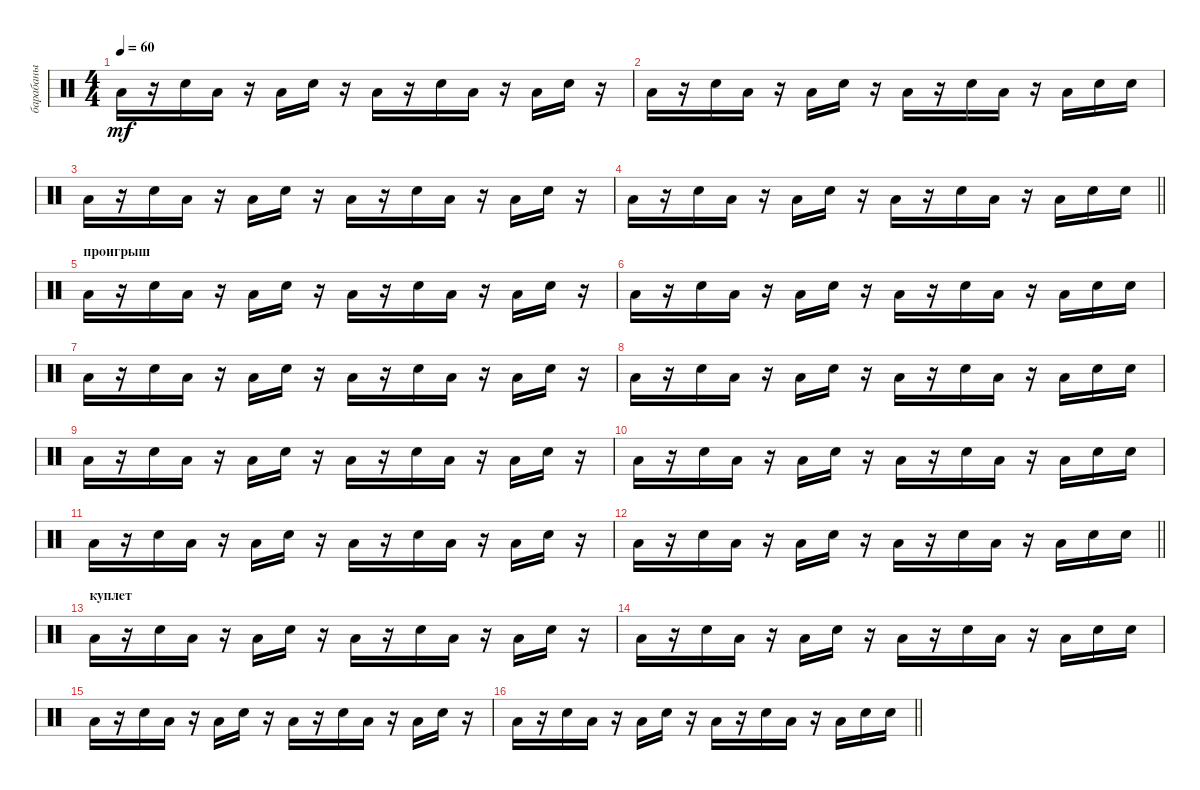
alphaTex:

\track ("барабаны" "барабаны") {instrument percussion}
\staff {score}
\articulation defaults
\ts (4 4)
\tempo 60
\clef neutral
\ks c "Low Floor Tom (hit)".16{dy mf}
r.16 "Snare (hit) 2".16 "Low Floor Tom (hit)".16 r.16 "Low Floor Tom (hit)".16 "Snare (hit) 2".16 r.16 "Low Floor Tom (hit)".16 r.16 "Snare (hit) 2".16 "Low Floor Tom (hit)".16 r.16 "Low Floor Tom (hit)".16 "Snare (hit) 2".16 r.16 |
"Low Floor Tom (hit)".16 r.16 "Snare (hit) 2".16 "Low Floor Tom (hit)".16 r.16 "Low Floor Tom (hit)".16 "Snare (hit) 2".16 r.16 "Low Floor Tom (hit)".16 r.16 "Snare (hit) 2".16 "Low Floor Tom (hit)".16 r.16 "Low Floor Tom (hit)".16 "Snare (hit) 2".16 "Snare (hit) 2".16 |
"Low Floor Tom (hit)".16 r.16 "Snare (hit) 2".16 "Low Floor Tom (hit)".16 r.16 "Low Floor Tom (hit)".16 "Snare (hit) 2".16 r.16 "Low Floor Tom (hit)".16 r.16 "Snare (hit) 2".16 "Low Floor Tom (hit)".16 r.16 "Low Floor Tom (hit)".16 "Snare (hit) 2".16 r.16 |
\barLineRight lightlight "Low Floor Tom (hit)".16
r.16 "Snare (hit) 2".16 "Low Floor Tom (hit)".16 r.16 "Low Floor Tom (hit)".16 "Snare (hit) 2".16 r.16 "Low Floor Tom (hit)".16 r.16 "Snare (hit) 2".16 "Low Floor Tom (hit)".16 r.16 "Low Floor Tom (hit)".16 "Snare (hit) 2".16 "Snare (hit) 2".16 |
\section ("" "проигрыш")
"Low Floor Tom (hit)".16 r.16 "Snare (hit) 2".16 "Low Floor Tom (hit)".16 r.16 "Low Floor Tom (hit)".16 "Snare (hit) 2".16 r.16 "Low Floor Tom (hit)".16 r.16 "Snare (hit) 2".16 "Low Floor Tom (hit)".16 r.16 "Low Floor Tom (hit)".16 "Snare (hit) 2".16 r.16 |
"Low Floor Tom (hit)".16 r.16 "Snare (hit) 2".16 "Low Floor Tom (hit)".16 r.16 "Low Floor Tom (hit)".16 "Snare (hit) 2".16 r.16 "Low Floor Tom (hit)".16 r.16 "Snare (hit) 2".16 "Low Floor Tom (hit)".16 r.16 "Low Floor Tom (hit)".16 "Snare (hit) 2".16 "Snare (hit) 2".16 |
"Low Floor Tom (hit)".16 r.16 "Snare (hit) 2".16 "Low Floor Tom (hit)".16 r.16 "Low Floor Tom (hit)".16 "Snare (hit) 2".16 r.16 "Low Floor Tom (hit)".16 r.16 "Snare (hit) 2".16 "Low Floor Tom (hit)".16 r.16 "Low Floor Tom (hit)".16 "Snare (hit) 2".16 r.16 |
"Low Floor Tom (hit)".16 r.16 "Snare (hit) 2".16 "Low Floor Tom (hit)".16 r.16 "Low Floor Tom (hit)".16 "Snare (hit) 2".16 r.16 "Low Floor Tom (hit)".16 r.16 "Snare (hit) 2".16 "Low Floor Tom (hit)".16 r.16 "Low Floor Tom (hit)".16 "Snare (hit) 2".16 "Snare (hit) 2".16 |
"Low Floor Tom (hit)".16 r.16 "Snare (hit) 2".16 "Low Floor Tom (hit)".16 r.16 "Low Floor Tom (hit)".16 "Snare (hit) 2".16 r.16 "Low Floor Tom (hit)".16 r.16 "Snare (hit) 2".16 "Low Floor Tom (hit)".16 r.16 "Low Floor Tom (hit)".16 "Snare (hit) 2".16 r.16 |
"Low Floor Tom (hit)".16 r.16 "Snare (hit) 2".16 "Low Floor Tom (hit)".16 r.16 "Low Floor Tom (hit)".16 "Snare (hit) 2".16 r.16 "Low Floor Tom (hit)".16 r.16 "Snare (hit) 2".16 "Low Floor Tom (hit)".16 r.16 "Low Floor Tom (hit)".16 "Snare (hit) 2".16 "Snare (hit) 2".16 |
"Low Floor Tom (hit)".16 r.16 "Snare (hit) 2".16 "Low Floor Tom (hit)".16 r.16 "Low Floor Tom (hit)".16 "Snare (hit) 2".16 r.16 "Low Floor Tom (hit)".16 r.16 "Snare (hit) 2".16 "Low Floor Tom (hit)".16 r.16 "Low Floor Tom (hit)".16 "Snare (hit) 2".16 r.16 |
\barLineRight lightlight "Low Floor Tom (hit)".16
r.16 "Snare (hit) 2".16 "Low Floor Tom (hit)".16 r.16 "Low Floor Tom (hit)".16 "Snare (hit) 2".16 r.16 "Low Floor Tom (hit)".16 r.16 "Snare (hit) 2".16 "Low Floor Tom (hit)".16 r.16 "Low Floor Tom (hit)".16 "Snare (hit) 2".16 "Snare (hit) 2".16 |
\section ("" "куплет")
"Low Floor Tom (hit)".16 r.16 "Snare (hit) 2".16 "Low Floor Tom (hit)".16 r.16 "Low Floor Tom (hit)".16 "Snare (hit) 2".16 r.16 "Low Floor Tom (hit)".16 r.16 "Snare (hit) 2".16 "Low Floor Tom (hit)".16 r.16 "Low Floor Tom (hit)".16 "Snare (hit) 2".16 r.16 |
"Low Floor Tom (hit)".16 r.16 "Snare (hit) 2".16 "Low Floor Tom (hit)".16 r.16 "Low Floor Tom (hit)".16 "Snare (hit) 2".16 r.16 "Low Floor Tom (hit)".16 r.16 "Snare (hit) 2".16 "Low Floor Tom (hit)".16 r.16 "Low Floor Tom (hit)".16 "Snare (hit) 2".16 "Snare (hit) 2".16 |
"Low Floor Tom (hit)".16 r.16 "Snare (hit) 2".16 "Low Floor Tom (hit)".16 r.16 "Low Floor Tom (hit)".16 "Snare (hit) 2".16 r.16 "Low Floor Tom (hit)".16 r.16 "Snare (hit) 2".16 "Low Floor Tom (hit)".16 r.16 "Low Floor Tom (hit)".16 "Snare (hit) 2".16 r.16 |
\barLineRight lightlight "Low Floor Tom (hit)".16
r.16 "Snare (hit) 2".16 "Low Floor Tom (hit)".16 r.16 "Low Floor Tom (hit)".16 "Snare (hit) 2".16 r.16 "Low Floor Tom (hit)".16 r.16 "Snare (hit) 2".16 "Low Floor Tom (hit)".16 r.16 "Low Floor Tom (hit)".16 "Snare (hit) 2".16 "Snare (hit) 2".16
